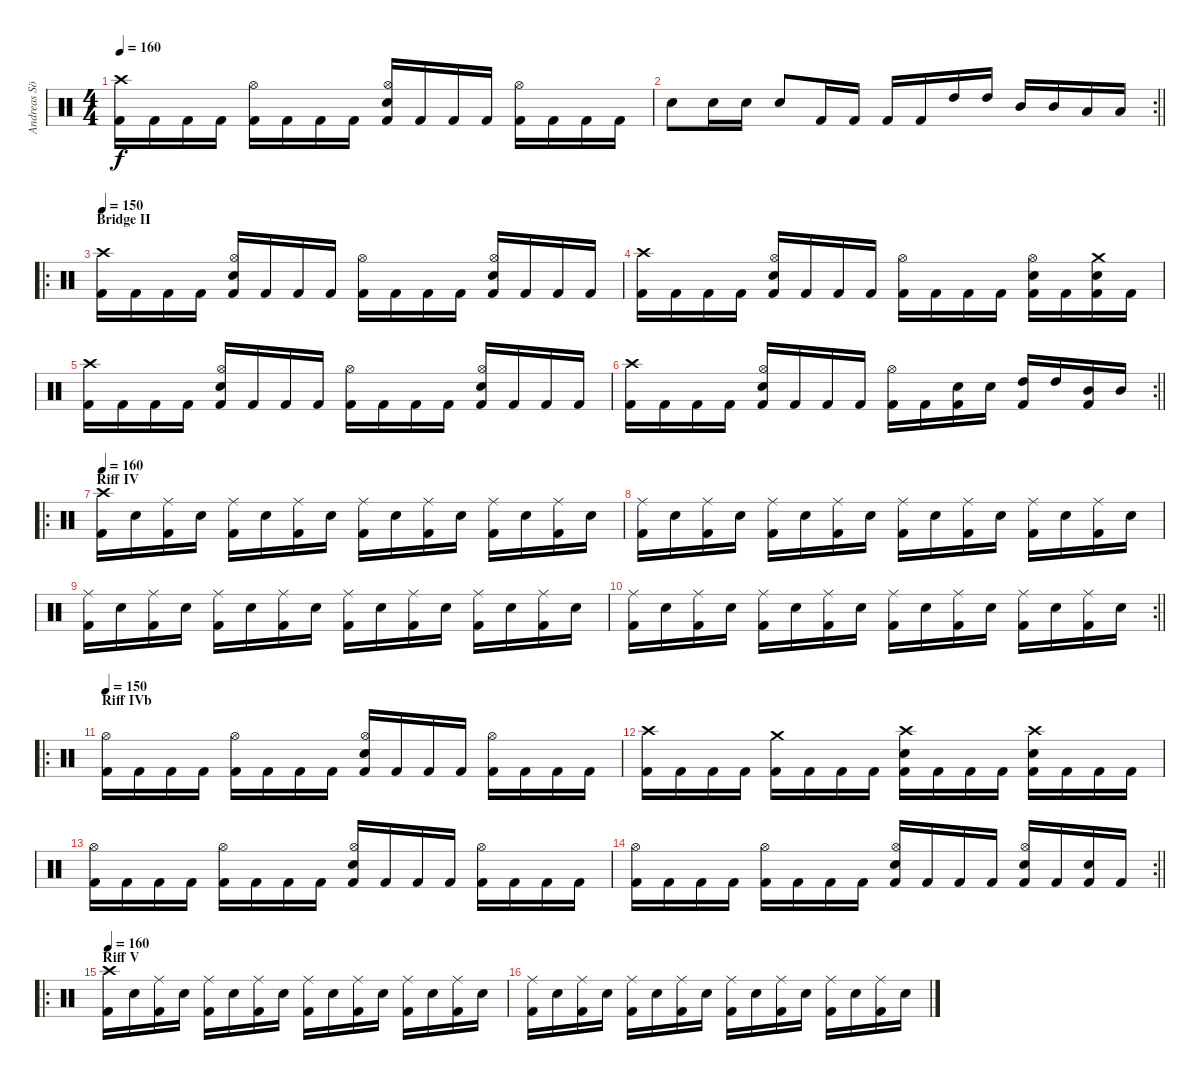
\track ("Andreas Söderlund" "Andreas Sö") {instrument percussion}
\staff {score}
\articulation defaults
\ts (4 4)
\tempo 160
\clef neutral
\ks c
("Crash high (hit)" "Kick (hit) 2").16{dy f} "Kick (hit) 2".16 "Kick (hit) 2".16 "Kick (hit) 2".16 ("Hi-Hat (open)" "Kick (hit) 2").16 "Kick (hit) 2".16 "Kick (hit) 2".16 "Kick (hit) 2".16 ("Hi-Hat (open)" "Electric Snare (hit)" "Kick (hit) 2").16 "Kick (hit) 2".16 "Kick (hit) 2".16 "Kick (hit) 2".16 ("Hi-Hat (open)" "Kick (hit) 2").16 "Kick (hit) 2".16 "Kick (hit) 2".16 "Kick (hit) 2".16 |
\rc 2
\barLineRight lightlight "Electric Snare (hit)".8 "Electric Snare (hit)".16 "Electric Snare (hit)".16 "Electric Snare (hit)".8 "Kick (hit) 2".16 "Kick (hit) 2".16 "Kick (hit) 2".16 "Kick (hit) 2".16 "High Tom (hit)".16 "High Tom (hit)".16 "Mid Tom (hit)".16 "Mid Tom (hit)".16 "Low Tom (hit)".16 "Low Tom (hit)".16
|
\ro
\section ("" "Bridge II")
\tempo 150
("Crash high (hit)" "Kick (hit) 2").16 "Kick (hit) 2".16 "Kick (hit) 2".16 "Kick (hit) 2".16 ("Hi-Hat (open)" "Electric Snare (hit)" "Kick (hit) 2").16 "Kick (hit) 2".16 "Kick (hit) 2".16 "Kick (hit) 2".16 ("Hi-Hat (open)" "Kick (hit) 2").16 "Kick (hit) 2".16 "Kick (hit) 2".16 "Kick (hit) 2".16 ("Hi-Hat (open)" "Electric Snare (hit)" "Kick (hit) 2").16 "Kick (hit) 2".16 "Kick (hit) 2".16 "Kick (hit) 2".16 |
("Crash high (hit)" "Kick (hit) 2").16 "Kick (hit) 2".16 "Kick (hit) 2".16 "Kick (hit) 2".16 ("Hi-Hat (open)" "Electric Snare (hit)" "Kick (hit) 2").16 "Kick (hit) 2".16 "Kick (hit) 2".16 "Kick (hit) 2".16 ("Hi-Hat (open)" "Kick (hit) 2").16 "Kick (hit) 2".16 "Kick (hit) 2".16 "Kick (hit) 2".16 ("Hi-Hat (open)" "Electric Snare (hit)" "Kick (hit) 2").16 "Kick (hit) 2".16 ("Crash medium (hit)" "Electric Snare (hit)" "Kick (hit) 2").16 "Kick (hit) 2".16 |
("Crash high (hit)" "Kick (hit) 2").16 "Kick (hit) 2".16 "Kick (hit) 2".16 "Kick (hit) 2".16 ("Hi-Hat (open)" "Electric Snare (hit)" "Kick (hit) 2").16 "Kick (hit) 2".16 "Kick (hit) 2".16 "Kick (hit) 2".16 ("Hi-Hat (open)" "Kick (hit) 2").16 "Kick (hit) 2".16 "Kick (hit) 2".16 "Kick (hit) 2".16 ("Hi-Hat (open)" "Electric Snare (hit)" "Kick (hit) 2").16 "Kick (hit) 2".16 "Kick (hit) 2".16 "Kick (hit) 2".16 |
\rc 2
\barLineRight lightlight
("Crash high (hit)" "Kick (hit) 2").16 "Kick (hit) 2".16 "Kick (hit) 2".16 "Kick (hit) 2".16 ("Hi-Hat (open)" "Electric Snare (hit)" "Kick (hit) 2").16 "Kick (hit) 2".16 "Kick (hit) 2".16 "Kick (hit) 2".16 ("Hi-Hat (open)" "Kick (hit) 2").16 "Kick (hit) 2".16 ("Electric Snare (hit)" "Kick (hit) 2").16 "Electric Snare (hit)".16 ("High Tom (hit)" "Kick (hit) 2").16 "High Tom (hit)".16 ("Mid Tom (hit)" "Kick (hit) 2").16 "Mid Tom (hit)".16 |
\ro
\section ("" "Riff IV")
\tempo 160
("Crash high (hit)" "Kick (hit) 2").16 "Electric Snare (hit)".16 ("Ride (middle)" "Kick (hit) 2").16 "Electric Snare (hit)".16 ("Ride (middle)" "Kick (hit) 2").16 "Electric Snare (hit)".16 ("Ride (middle)" "Kick (hit) 2").16 "Electric Snare (hit)".16 ("Ride (middle)" "Kick (hit) 2").16 "Electric Snare (hit)".16 ("Ride (middle)" "Kick (hit) 2").16 "Electric Snare (hit)".16 ("Ride (middle)" "Kick (hit) 2").16 "Electric Snare (hit)".16 ("Ride (middle)" "Kick (hit) 2").16 "Electric Snare (hit)".16 |
("Ride (middle)" "Kick (hit) 2").16 "Electric Snare (hit)".16 ("Ride (middle)" "Kick (hit) 2").16 "Electric Snare (hit)".16 ("Ride (middle)" "Kick (hit) 2").16 "Electric Snare (hit)".16 ("Ride (middle)" "Kick (hit) 2").16 "Electric Snare (hit)".16 ("Ride (middle)" "Kick (hit) 2").16 "Electric Snare (hit)".16 ("Ride (middle)" "Kick (hit) 2").16 "Electric Snare (hit)".16 ("Ride (middle)" "Kick (hit) 2").16 "Electric Snare (hit)".16 ("Ride (middle)" "Kick (hit) 2").16 "Electric Snare (hit)".16 |
("Ride (middle)" "Kick (hit) 2").16 "Electric Snare (hit)".16 ("Ride (middle)" "Kick (hit) 2").16 "Electric Snare (hit)".16 ("Ride (middle)" "Kick (hit) 2").16 "Electric Snare (hit)".16 ("Ride (middle)" "Kick (hit) 2").16 "Electric Snare (hit)".16 ("Ride (middle)" "Kick (hit) 2").16 "Electric Snare (hit)".16 ("Ride (middle)" "Kick (hit) 2").16 "Electric Snare (hit)".16 ("Ride (middle)" "Kick (hit) 2").16 "Electric Snare (hit)".16 ("Ride (middle)" "Kick (hit) 2").16 "Electric Snare (hit)".16 |
\rc 2
\barLineRight lightlight
("Ride (middle)" "Kick (hit) 2").16 "Electric Snare (hit)".16 ("Ride (middle)" "Kick (hit) 2").16 "Electric Snare (hit)".16 ("Ride (middle)" "Kick (hit) 2").16 "Electric Snare (hit)".16 ("Ride (middle)" "Kick (hit) 2").16 "Electric Snare (hit)".16 ("Ride (middle)" "Kick (hit) 2").16 "Electric Snare (hit)".16 ("Ride (middle)" "Kick (hit) 2").16 "Electric Snare (hit)".16 ("Ride (middle)" "Kick (hit) 2").16 "Electric Snare (hit)".16 ("Ride (middle)" "Kick (hit) 2").16 "Electric Snare (hit)".16 |
\ro
\section ("" "Riff IVb")
\tempo 150
("Hi-Hat (open)" "Kick (hit) 2").16 "Kick (hit) 2".16 "Kick (hit) 2".16 "Kick (hit) 2".16 ("Hi-Hat (open)" "Kick (hit) 2").16 "Kick (hit) 2".16 "Kick (hit) 2".16 "Kick (hit) 2".16 ("Hi-Hat (open)" "Electric Snare (hit)" "Kick (hit) 2").16 "Kick (hit) 2".16 "Kick (hit) 2".16 "Kick (hit) 2".16 ("Hi-Hat (open)" "Kick (hit) 2").16 "Kick (hit) 2".16 "Kick (hit) 2".16 "Kick (hit) 2".16 |
("Crash high (hit)" "Kick (hit) 2").16 "Kick (hit) 2".16 "Kick (hit) 2".16 "Kick (hit) 2".16 ("Crash medium (hit)" "Kick (hit) 2").16 "Kick (hit) 2".16 "Kick (hit) 2".16 "Kick (hit) 2".16 ("Crash high (hit)" "Electric Snare (hit)" "Kick (hit) 2").16 "Kick (hit) 2".16 "Kick (hit) 2".16 "Kick (hit) 2".16 ("Crash high (hit)" "Electric Snare (hit)" "Kick (hit) 2").16 "Kick (hit) 2".16 "Kick (hit) 2".16 "Kick (hit) 2".16 |
("Hi-Hat (open)" "Kick (hit) 2").16 "Kick (hit) 2".16 "Kick (hit) 2".16 "Kick (hit) 2".16 ("Hi-Hat (open)" "Kick (hit) 2").16 "Kick (hit) 2".16 "Kick (hit) 2".16 "Kick (hit) 2".16 ("Hi-Hat (open)" "Electric Snare (hit)" "Kick (hit) 2").16 "Kick (hit) 2".16 "Kick (hit) 2".16 "Kick (hit) 2".16 ("Hi-Hat (open)" "Kick (hit) 2").16 "Kick (hit) 2".16 "Kick (hit) 2".16 "Kick (hit) 2".16 |
\rc 2
\barLineRight lightlight
("Hi-Hat (open)" "Kick (hit) 2").16 "Kick (hit) 2".16 "Kick (hit) 2".16 "Kick (hit) 2".16 ("Hi-Hat (open)" "Kick (hit) 2").16 "Kick (hit) 2".16 "Kick (hit) 2".16 "Kick (hit) 2".16 ("Hi-Hat (open)" "Electric Snare (hit)" "Kick (hit) 2").16 "Kick (hit) 2".16 "Kick (hit) 2".16 "Kick (hit) 2".16 ("Hi-Hat (open)" "Electric Snare (hit)" "Kick (hit) 2").16 "Kick (hit) 2".16 ("Electric Snare (hit)" "Kick (hit) 2").16 "Kick (hit) 2".16 |
\ro
\section ("" "Riff V")
\tempo 160
("Crash high (hit)" "Kick (hit) 2").16 "Electric Snare (hit)".16 ("Ride (middle)" "Kick (hit) 2").16 "Electric Snare (hit)".16 ("Ride (middle)" "Kick (hit) 2").16 "Electric Snare (hit)".16 ("Ride (middle)" "Kick (hit) 2").16 "Electric Snare (hit)".16 ("Ride (middle)" "Kick (hit) 2").16 "Electric Snare (hit)".16 ("Ride (middle)" "Kick (hit) 2").16 "Electric Snare (hit)".16 ("Ride (middle)" "Kick (hit) 2").16 "Electric Snare (hit)".16 ("Ride (middle)" "Kick (hit) 2").16 "Electric Snare (hit)".16 |
("Ride (middle)" "Kick (hit) 2").16 "Electric Snare (hit)".16 ("Ride (middle)" "Kick (hit) 2").16 "Electric Snare (hit)".16 ("Ride (middle)" "Kick (hit) 2").16 "Electric Snare (hit)".16 ("Ride (middle)" "Kick (hit) 2").16 "Electric Snare (hit)".16 ("Ride (middle)" "Kick (hit) 2").16 "Electric Snare (hit)".16 ("Ride (middle)" "Kick (hit) 2").16 "Electric Snare (hit)".16 ("Ride (middle)" "Kick (hit) 2").16 "Electric Snare (hit)".16 ("Ride (middle)" "Kick (hit) 2").16 "Electric Snare (hit)".16
